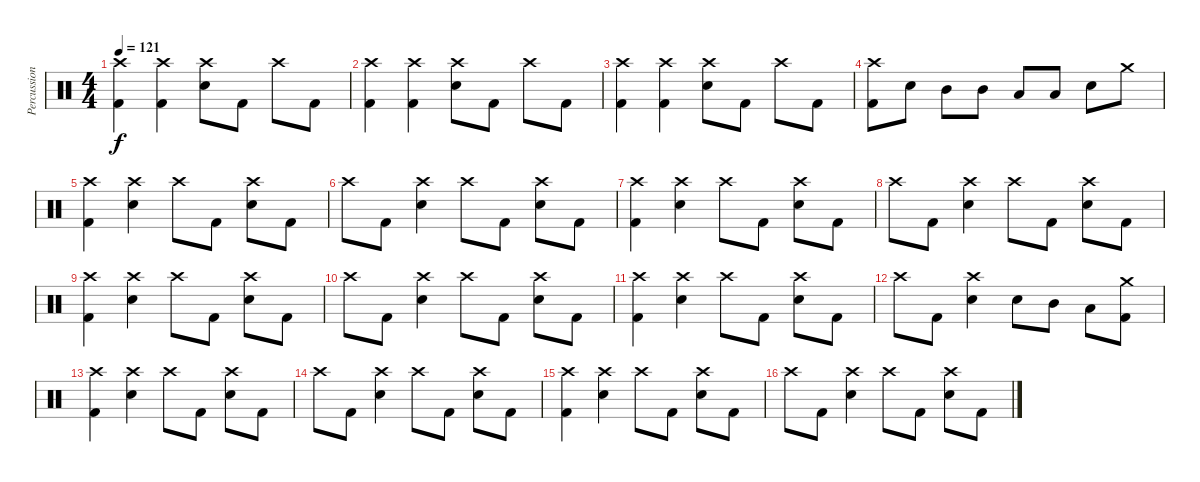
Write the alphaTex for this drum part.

\track ("Percussion" "Percussion") {instrument percussion}
\staff {score}
\articulation defaults
\ts (4 4)
\tempo 121
\clef neutral
\ks c
("Crash high (hit)" "Kick (hit) 2").4{dy f} ("Crash high (hit)" "Kick (hit) 2").4 ("Crash high (hit)" "Snare (hit) 2").8 "Kick (hit) 2".8 "Crash high (hit)".8 "Kick (hit) 2".8 |
("Crash high (hit)" "Kick (hit) 2").4 ("Crash high (hit)" "Kick (hit) 2").4 ("Crash high (hit)" "Snare (hit) 2").8 "Kick (hit) 2".8 "Crash high (hit)".8 "Kick (hit) 2".8 |
("Crash high (hit)" "Kick (hit) 2").4 ("Crash high (hit)" "Kick (hit) 2").4 ("Crash high (hit)" "Snare (hit) 2").8 "Kick (hit) 2".8 "Crash high (hit)".8 "Kick (hit) 2".8 |
("Crash high (hit)" "Kick (hit) 2").8 "Snare (hit) 2".8 "Mid Tom (hit)".8 "Mid Tom (hit)".8 "Low Tom (hit)".8 "Low Tom (hit)".8 "Snare (hit) 2".8 "Crash medium (hit)".8 |
("Crash high (hit)" "Kick (hit) 2").4 ("Crash high (hit)" "Snare (hit) 2").4 "Crash high (hit)".8 "Kick (hit) 2".8 ("Crash high (hit)" "Snare (hit) 2").8 "Kick (hit) 2".8 |
"Crash high (hit)".8 "Kick (hit) 2".8 ("Crash high (hit)" "Snare (hit) 2").4 "Crash high (hit)".8 "Kick (hit) 2".8 ("Crash high (hit)" "Snare (hit) 2").8 "Kick (hit) 2".8 |
("Crash high (hit)" "Kick (hit) 2").4 ("Crash high (hit)" "Snare (hit) 2").4 "Crash high (hit)".8 "Kick (hit) 2".8 ("Crash high (hit)" "Snare (hit) 2").8 "Kick (hit) 2".8 |
"Crash high (hit)".8 "Kick (hit) 2".8 ("Crash high (hit)" "Snare (hit) 2").4 "Crash high (hit)".8 "Kick (hit) 2".8 ("Crash high (hit)" "Snare (hit) 2").8 "Kick (hit) 2".8 |
("Crash high (hit)" "Kick (hit) 2").4 ("Crash high (hit)" "Snare (hit) 2").4 "Crash high (hit)".8 "Kick (hit) 2".8 ("Crash high (hit)" "Snare (hit) 2").8 "Kick (hit) 2".8 |
"Crash high (hit)".8 "Kick (hit) 2".8 ("Crash high (hit)" "Snare (hit) 2").4 "Crash high (hit)".8 "Kick (hit) 2".8 ("Crash high (hit)" "Snare (hit) 2").8 "Kick (hit) 2".8 |
("Crash high (hit)" "Kick (hit) 2").4 ("Crash high (hit)" "Snare (hit) 2").4 "Crash high (hit)".8 "Kick (hit) 2".8 ("Crash high (hit)" "Snare (hit) 2").8 "Kick (hit) 2".8 |
"Crash high (hit)".8 "Kick (hit) 2".8 ("Crash high (hit)" "Snare (hit) 2").4 "Snare (hit) 2".8 "Mid Tom (hit)".8 "Low Tom (hit)".8 ("Crash medium (hit)" "Kick (hit) 2").8 |
("Crash high (hit)" "Kick (hit) 2").4 ("Crash high (hit)" "Snare (hit) 2").4 "Crash high (hit)".8 "Kick (hit) 2".8 ("Crash high (hit)" "Snare (hit) 2").8 "Kick (hit) 2".8 |
"Crash high (hit)".8 "Kick (hit) 2".8 ("Crash high (hit)" "Snare (hit) 2").4 "Crash high (hit)".8 "Kick (hit) 2".8 ("Crash high (hit)" "Snare (hit) 2").8 "Kick (hit) 2".8 |
("Crash high (hit)" "Kick (hit) 2").4 ("Crash high (hit)" "Snare (hit) 2").4 "Crash high (hit)".8 "Kick (hit) 2".8 ("Crash high (hit)" "Snare (hit) 2").8 "Kick (hit) 2".8 |
"Crash high (hit)".8 "Kick (hit) 2".8 ("Crash high (hit)" "Snare (hit) 2").4 "Crash high (hit)".8 "Kick (hit) 2".8 ("Crash high (hit)" "Snare (hit) 2").8 "Kick (hit) 2".8
